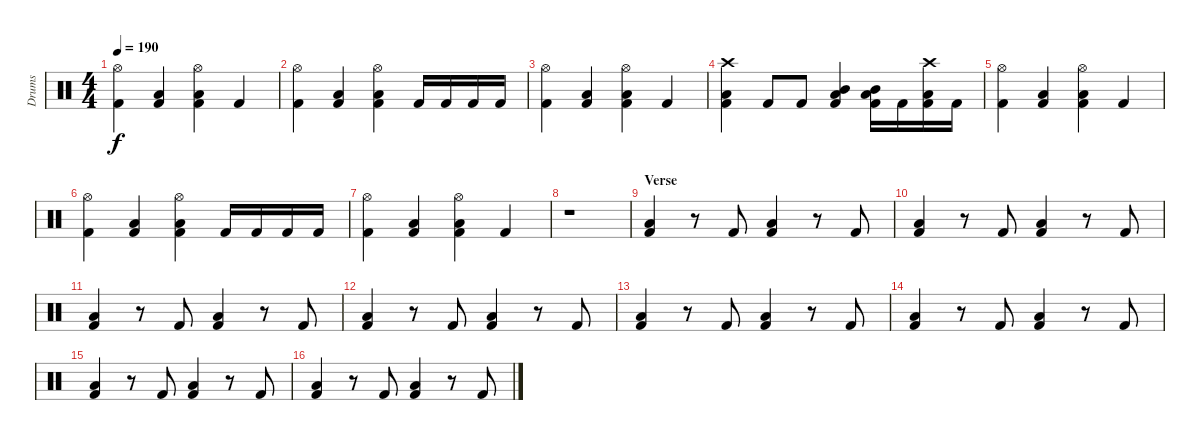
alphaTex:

\track ("Drums" "Drums") {instrument percussion}
\staff {score}
\articulation defaults
\ts (4 4)
\tempo 190
\clef neutral
\ks c
("Hi-Hat (open)" "Kick (hit) 2").4{dy f} ("Low Floor Tom (hit)" "Kick (hit) 2").4 ("Hi-Hat (open)" "Low Floor Tom (hit)" "Kick (hit) 2").4 "Kick (hit) 2".4 |
("Hi-Hat (open)" "Kick (hit) 2").4 ("Low Floor Tom (hit)" "Kick (hit) 2").4 ("Hi-Hat (open)" "Low Floor Tom (hit)" "Kick (hit) 2").4 "Kick (hit) 2".16 "Kick (hit) 2".16 "Kick (hit) 2".16 "Kick (hit) 2".16 |
("Hi-Hat (open)" "Kick (hit) 2").4 ("Low Floor Tom (hit)" "Kick (hit) 2").4 ("Hi-Hat (open)" "Low Floor Tom (hit)" "Kick (hit) 2").4 "Kick (hit) 2".4 |
("Crash high (hit)" "Low Floor Tom (hit)" "Kick (hit) 2").4 "Kick (hit) 2".8 "Kick (hit) 2".8 ("Mid Tom (hit)" "Low Floor Tom (hit)" "Kick (hit) 2").4 ("Mid Tom (hit)" "Low Floor Tom (hit)" "Kick (hit) 2").16 "Kick (hit) 2".16 ("Crash high (hit)" "Low Floor Tom (hit)" "Kick (hit) 2").16 "Kick (hit) 2".16 |
("Hi-Hat (open)" "Kick (hit) 2").4 ("Low Floor Tom (hit)" "Kick (hit) 2").4 ("Hi-Hat (open)" "Low Floor Tom (hit)" "Kick (hit) 2").4 "Kick (hit) 2".4 |
("Hi-Hat (open)" "Kick (hit) 2").4 ("Low Floor Tom (hit)" "Kick (hit) 2").4 ("Hi-Hat (open)" "Low Floor Tom (hit)" "Kick (hit) 2").4 "Kick (hit) 2".16 "Kick (hit) 2".16 "Kick (hit) 2".16 "Kick (hit) 2".16 |
("Hi-Hat (open)" "Kick (hit) 2").4 ("Low Floor Tom (hit)" "Kick (hit) 2").4 ("Hi-Hat (open)" "Low Floor Tom (hit)" "Kick (hit) 2").4 "Kick (hit) 2".4 |
r.1 |
\section ("" "Verse")
("Low Floor Tom (hit)" "Kick (hit) 2").4 r.8 "Kick (hit) 2".8 ("Low Floor Tom (hit)" "Kick (hit) 2").4 r.8 "Kick (hit) 2".8 |
("Low Floor Tom (hit)" "Kick (hit) 2").4 r.8 "Kick (hit) 2".8 ("Low Floor Tom (hit)" "Kick (hit) 2").4 r.8 "Kick (hit) 2".8 |
("Low Floor Tom (hit)" "Kick (hit) 2").4 r.8 "Kick (hit) 2".8 ("Low Floor Tom (hit)" "Kick (hit) 2").4 r.8 "Kick (hit) 2".8 |
("Low Floor Tom (hit)" "Kick (hit) 2").4 r.8 "Kick (hit) 2".8 ("Low Floor Tom (hit)" "Kick (hit) 2").4 r.8 "Kick (hit) 2".8 |
("Low Floor Tom (hit)" "Kick (hit) 2").4 r.8 "Kick (hit) 2".8 ("Low Floor Tom (hit)" "Kick (hit) 2").4 r.8 "Kick (hit) 2".8 |
("Low Floor Tom (hit)" "Kick (hit) 2").4 r.8 "Kick (hit) 2".8 ("Low Floor Tom (hit)" "Kick (hit) 2").4 r.8 "Kick (hit) 2".8 |
("Low Floor Tom (hit)" "Kick (hit) 2").4 r.8 "Kick (hit) 2".8 ("Low Floor Tom (hit)" "Kick (hit) 2").4 r.8 "Kick (hit) 2".8 |
("Low Floor Tom (hit)" "Kick (hit) 2").4 r.8 "Kick (hit) 2".8 ("Low Floor Tom (hit)" "Kick (hit) 2").4 r.8 "Kick (hit) 2".8
